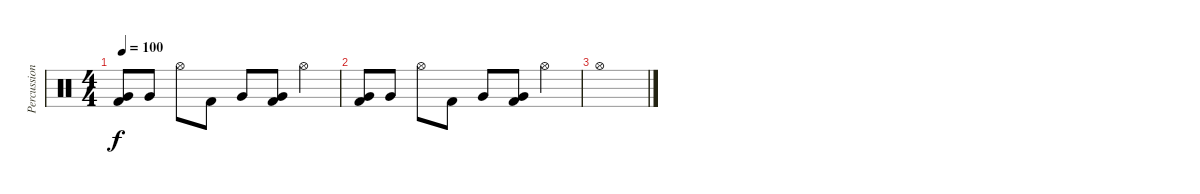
\track ("Percussion" "Percussion") {instrument percussion}
\staff {score}
\articulation defaults
\ts (4 4)
\tempo 100
\clef neutral
\ks c
("Very Low Tom (hit)" "Kick (hit) 2").8{dy f} "Very Low Tom (hit)".8 "Hi-Hat (open)".8 "Kick (hit) 2".8 "Very Low Tom (hit)".8 ("Very Low Tom (hit)" "Kick (hit) 2").8 "Hi-Hat (open)".4 |
("Very Low Tom (hit)" "Kick (hit) 2").8 "Very Low Tom (hit)".8 "Hi-Hat (open)".8 "Kick (hit) 2".8 "Very Low Tom (hit)".8 ("Very Low Tom (hit)" "Kick (hit) 2").8 "Hi-Hat (open)".4 |
"Hi-Hat (open)".1
